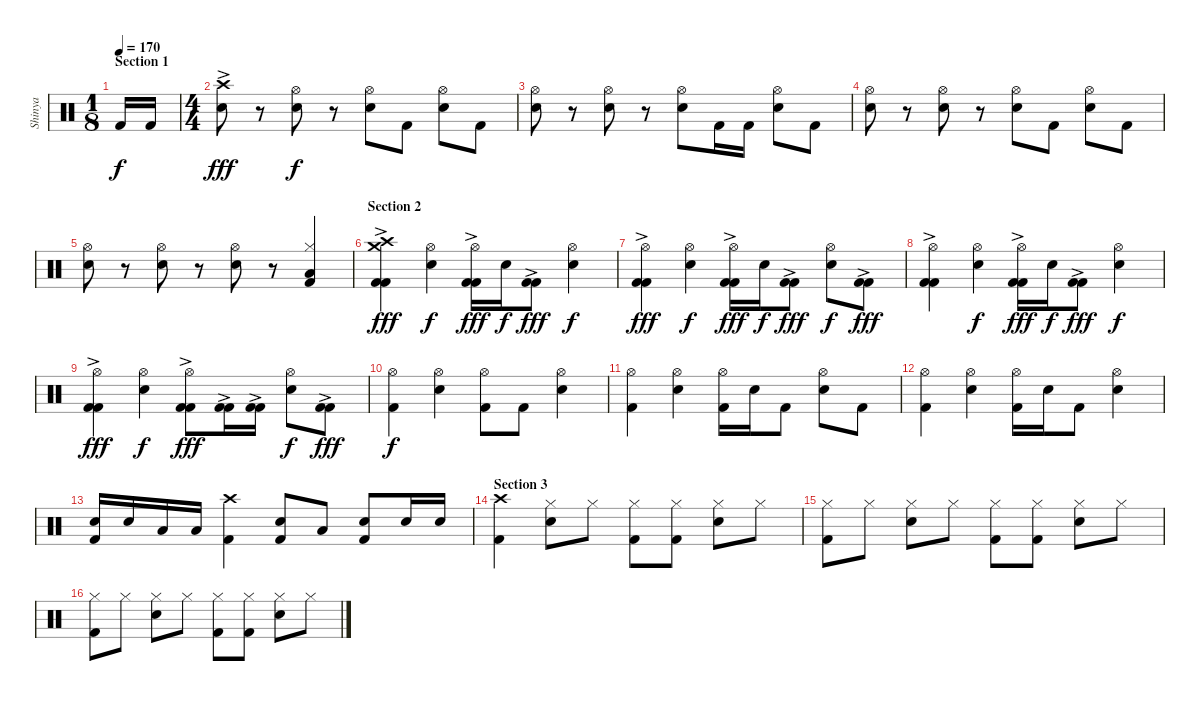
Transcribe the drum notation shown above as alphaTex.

\track ("Shinya" "Shinya") {instrument percussion}
\staff {score}
\articulation defaults
\ts (1 8)
\section ("" "Section 1")
\tempo 170
\clef neutral
\ks c "Kick (hit) 2".16{dy f} "Kick (hit) 2".16
|
\ts (4 4)
("Crash high (hit)"{ac} "Snare (hit) 2").8{dy fff} r.8 ("Hi-Hat (open)" "Snare (hit) 2").8{dy f} r.8 ("Hi-Hat (open)" "Snare (hit) 2").8 "Kick (hit) 2".8 ("Hi-Hat (open)" "Snare (hit) 2").8 "Kick (hit) 2".8 |
("Hi-Hat (open)" "Snare (hit) 2").8 r.8 ("Hi-Hat (open)" "Snare (hit) 2").8 r.8 ("Hi-Hat (open)" "Snare (hit) 2").8 "Kick (hit) 2".16 "Kick (hit) 2".16 ("Hi-Hat (open)" "Snare (hit) 2").8 "Kick (hit) 2".8 |
("Hi-Hat (open)" "Snare (hit) 2").8 r.8 ("Hi-Hat (open)" "Snare (hit) 2").8 r.8 ("Hi-Hat (open)" "Snare (hit) 2").8 "Kick (hit) 2".8 ("Hi-Hat (open)" "Snare (hit) 2").8 "Kick (hit) 2".8 |
("Hi-Hat (open)" "Snare (hit) 2").8 r.8 ("Hi-Hat (open)" "Snare (hit) 2").8 r.8 ("Hi-Hat (open)" "Snare (hit) 2").8 r.8 ("Hi-Hat (closed)" "Low Floor Tom (hit)" "Kick (hit) 2").4 |
\section ("" "Section 2")
("Crash medium (hit)" "Crash high (hit)" "Kick (hit) 2"{ac} "Kick (hit) 2").4{dy fff} ("Hi-Hat (open)" "Snare (hit) 2").4{dy f} ("Hi-Hat (open)" "Kick (hit) 2"{ac} "Kick (hit) 2").16{dy fff} "Snare (hit) 2".16{dy f} ("Kick (hit) 2"{ac} "Kick (hit) 2").8{dy fff} ("Hi-Hat (open)" "Snare (hit) 2").4{dy f} |
("Hi-Hat (open)" "Kick (hit) 2"{ac} "Kick (hit) 2").4{dy fff} ("Hi-Hat (open)" "Snare (hit) 2").4{dy f} ("Hi-Hat (open)" "Kick (hit) 2"{ac} "Kick (hit) 2").16{dy fff} "Snare (hit) 2".16{dy f} ("Kick (hit) 2"{ac} "Kick (hit) 2").8{dy fff} ("Hi-Hat (open)" "Snare (hit) 2").8{dy f} ("Kick (hit) 2"{ac} "Kick (hit) 2").8{dy fff} |
("Hi-Hat (open)" "Kick (hit) 2"{ac} "Kick (hit) 2").4 ("Hi-Hat (open)" "Snare (hit) 2").4{dy f} ("Hi-Hat (open)" "Kick (hit) 2"{ac} "Kick (hit) 2").16{dy fff} "Snare (hit) 2".16{dy f} ("Kick (hit) 2"{ac} "Kick (hit) 2").8{dy fff} ("Hi-Hat (open)" "Snare (hit) 2").4{dy f} |
("Hi-Hat (open)" "Kick (hit) 2"{ac} "Kick (hit) 2").4{dy fff} ("Hi-Hat (open)" "Snare (hit) 2").4{dy f} ("Hi-Hat (open)" "Kick (hit) 2"{ac} "Kick (hit) 2").8{dy fff} ("Kick (hit) 2"{ac} "Kick (hit) 2").16 ("Kick (hit) 2"{ac} "Kick (hit) 2").16 ("Hi-Hat (open)" "Snare (hit) 2").8{dy f} ("Kick (hit) 2"{ac} "Kick (hit) 2").8{dy fff} |
("Hi-Hat (open)" "Kick (hit) 2").4{dy f} ("Hi-Hat (open)" "Snare (hit) 2").4 ("Hi-Hat (open)" "Kick (hit) 2").8 "Kick (hit) 2".8 ("Hi-Hat (open)" "Snare (hit) 2").4 |
("Hi-Hat (open)" "Kick (hit) 2").4 ("Hi-Hat (open)" "Snare (hit) 2").4 ("Hi-Hat (open)" "Kick (hit) 2").16 "Snare (hit) 2".16 "Kick (hit) 2".8 ("Hi-Hat (open)" "Snare (hit) 2").8 "Kick (hit) 2".8 |
("Hi-Hat (open)" "Kick (hit) 2").4 ("Hi-Hat (open)" "Snare (hit) 2").4 ("Hi-Hat (open)" "Kick (hit) 2").16 "Snare (hit) 2".16 "Kick (hit) 2".8 ("Hi-Hat (open)" "Snare (hit) 2").4 |
("Snare (hit) 2" "Kick (hit) 2").16 "Snare (hit) 2".16 "Low Tom (hit)".16 "Low Floor Tom (hit)".16 ("Crash high (hit)" "Kick (hit) 2").4 ("Snare (hit) 2" "Kick (hit) 2").8 "Low Floor Tom (hit)".8 ("Snare (hit) 2" "Kick (hit) 2").8 "Snare (hit) 2".16 "Snare (hit) 2".16 |
\section ("" "Section 3")
("Crash high (hit)" "Kick (hit) 2").4 ("Hi-Hat (closed)" "Snare (hit) 2").8 "Hi-Hat (closed)".8 ("Hi-Hat (closed)" "Kick (hit) 2").8 ("Hi-Hat (closed)" "Kick (hit) 2").8 ("Hi-Hat (closed)" "Snare (hit) 2").8 "Hi-Hat (closed)".8 |
("Hi-Hat (closed)" "Kick (hit) 2").8 "Hi-Hat (closed)".8 ("Hi-Hat (closed)" "Snare (hit) 2").8 "Hi-Hat (closed)".8 ("Hi-Hat (closed)" "Kick (hit) 2").8 ("Hi-Hat (closed)" "Kick (hit) 2").8 ("Hi-Hat (closed)" "Snare (hit) 2").8 "Hi-Hat (closed)".8 |
("Hi-Hat (closed)" "Kick (hit) 2").8 "Hi-Hat (closed)".8 ("Hi-Hat (closed)" "Snare (hit) 2").8 "Hi-Hat (closed)".8 ("Hi-Hat (closed)" "Kick (hit) 2").8 ("Hi-Hat (closed)" "Kick (hit) 2").8 ("Hi-Hat (closed)" "Snare (hit) 2").8 "Hi-Hat (closed)".8
